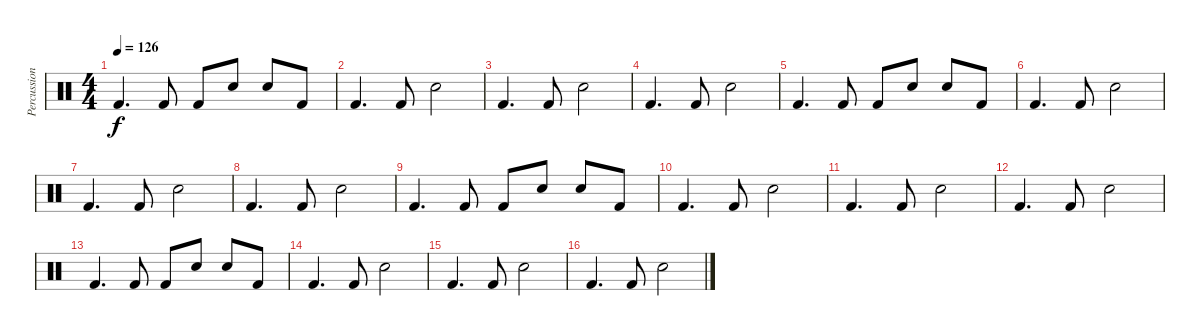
\track ("Percussioni" "Percussion") {instrument percussion}
\staff {score}
\articulation defaults
\ts (4 4)
\tempo 126
\clef neutral
\ks c "Kick (hit) 2".4{d dy f} "Kick (hit) 2".8 "Kick (hit) 2".8 "Snare (hit) 2".8 "Snare (hit) 2".8 "Kick (hit) 2".8
|
"Kick (hit) 2".4{d} "Kick (hit) 2".8 "Snare (hit) 2".2 |
"Kick (hit) 2".4{d} "Kick (hit) 2".8 "Snare (hit) 2".2 |
"Kick (hit) 2".4{d} "Kick (hit) 2".8 "Snare (hit) 2".2 |
"Kick (hit) 2".4{d} "Kick (hit) 2".8 "Kick (hit) 2".8 "Snare (hit) 2".8 "Snare (hit) 2".8 "Kick (hit) 2".8 |
"Kick (hit) 2".4{d} "Kick (hit) 2".8 "Snare (hit) 2".2 |
"Kick (hit) 2".4{d} "Kick (hit) 2".8 "Snare (hit) 2".2 |
"Kick (hit) 2".4{d} "Kick (hit) 2".8 "Snare (hit) 2".2 |
"Kick (hit) 2".4{d} "Kick (hit) 2".8 "Kick (hit) 2".8 "Snare (hit) 2".8 "Snare (hit) 2".8 "Kick (hit) 2".8 |
"Kick (hit) 2".4{d} "Kick (hit) 2".8 "Snare (hit) 2".2 |
"Kick (hit) 2".4{d} "Kick (hit) 2".8 "Snare (hit) 2".2 |
"Kick (hit) 2".4{d} "Kick (hit) 2".8 "Snare (hit) 2".2 |
"Kick (hit) 2".4{d} "Kick (hit) 2".8 "Kick (hit) 2".8 "Snare (hit) 2".8 "Snare (hit) 2".8 "Kick (hit) 2".8 |
"Kick (hit) 2".4{d} "Kick (hit) 2".8 "Snare (hit) 2".2 |
"Kick (hit) 2".4{d} "Kick (hit) 2".8 "Snare (hit) 2".2 |
"Kick (hit) 2".4{d} "Kick (hit) 2".8 "Snare (hit) 2".2
